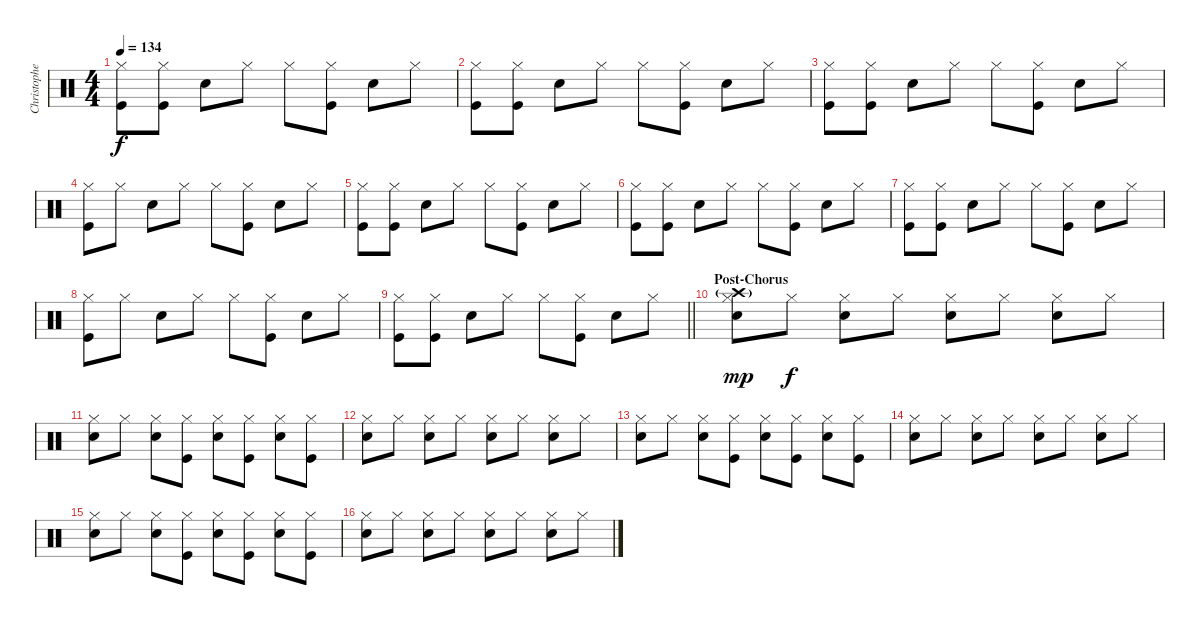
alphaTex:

\track ("Christopher - Drums" "Christophe") {instrument percussion}
\staff {score}
\articulation defaults
\ts (4 4)
\tempo 134
\clef neutral
\ks c
("Hi-Hat (closed)" "Kick (hit)").8{dy f} ("Hi-Hat (closed)" "Kick (hit)").8 "Snare (hit) 2".8 "Hi-Hat (closed)".8 "Hi-Hat (closed)".8 ("Hi-Hat (closed)" "Kick (hit)").8 "Snare (hit) 2".8 "Hi-Hat (closed)".8 |
("Hi-Hat (closed)" "Kick (hit)").8 ("Hi-Hat (closed)" "Kick (hit)").8 "Snare (hit) 2".8 "Hi-Hat (closed)".8 "Hi-Hat (closed)".8 ("Hi-Hat (closed)" "Kick (hit)").8 "Snare (hit) 2".8 "Hi-Hat (closed)".8 |
("Hi-Hat (closed)" "Kick (hit)").8 ("Hi-Hat (closed)" "Kick (hit)").8 "Snare (hit) 2".8 "Hi-Hat (closed)".8 "Hi-Hat (closed)".8 ("Hi-Hat (closed)" "Kick (hit)").8 "Snare (hit) 2".8 "Hi-Hat (closed)".8 |
("Hi-Hat (closed)" "Kick (hit)").8 "Hi-Hat (closed)".8 "Snare (hit) 2".8 "Hi-Hat (closed)".8 "Hi-Hat (closed)".8 ("Hi-Hat (closed)" "Kick (hit)").8 "Snare (hit) 2".8 "Hi-Hat (closed)".8 |
("Hi-Hat (closed)" "Kick (hit)").8 ("Hi-Hat (closed)" "Kick (hit)").8 "Snare (hit) 2".8 "Hi-Hat (closed)".8 "Hi-Hat (closed)".8 ("Hi-Hat (closed)" "Kick (hit)").8 "Snare (hit) 2".8 "Hi-Hat (closed)".8 |
("Hi-Hat (closed)" "Kick (hit)").8 ("Hi-Hat (closed)" "Kick (hit)").8 "Snare (hit) 2".8 "Hi-Hat (closed)".8 "Hi-Hat (closed)".8 ("Hi-Hat (closed)" "Kick (hit)").8 "Snare (hit) 2".8 "Hi-Hat (closed)".8 |
("Hi-Hat (closed)" "Kick (hit)").8 ("Hi-Hat (closed)" "Kick (hit)").8 "Snare (hit) 2".8 "Hi-Hat (closed)".8 "Hi-Hat (closed)".8 ("Hi-Hat (closed)" "Kick (hit)").8 "Snare (hit) 2".8 "Hi-Hat (closed)".8 |
("Hi-Hat (closed)" "Kick (hit)").8 "Hi-Hat (closed)".8 "Snare (hit) 2".8 "Hi-Hat (closed)".8 "Hi-Hat (closed)".8 ("Hi-Hat (closed)" "Kick (hit)").8 "Snare (hit) 2".8 "Hi-Hat (closed)".8 |
\barLineRight lightlight
("Hi-Hat (closed)" "Kick (hit)").8 ("Hi-Hat (closed)" "Kick (hit)").8 "Snare (hit) 2".8 "Hi-Hat (closed)".8 "Hi-Hat (closed)".8 ("Hi-Hat (closed)" "Kick (hit)").8 "Snare (hit) 2".8 "Hi-Hat (closed)".8 |
\section ("" "Post-Chorus")
("Crash high (hit)"{g} "Hi-Hat (closed)" "Snare (hit) 2").8{dy mp} "Hi-Hat (closed)".8{dy f} ("Hi-Hat (closed)" "Snare (hit) 2").8 "Hi-Hat (closed)".8 ("Hi-Hat (closed)" "Snare (hit) 2").8 "Hi-Hat (closed)".8 ("Hi-Hat (closed)" "Snare (hit) 2").8 "Hi-Hat (closed)".8 |
("Hi-Hat (closed)" "Snare (hit) 2").8 "Hi-Hat (closed)".8 ("Hi-Hat (closed)" "Snare (hit) 2").8 ("Hi-Hat (closed)" "Kick (hit)").8 ("Hi-Hat (closed)" "Snare (hit) 2").8 ("Hi-Hat (closed)" "Kick (hit)").8 ("Hi-Hat (closed)" "Snare (hit) 2").8 ("Hi-Hat (closed)" "Kick (hit)").8 |
("Hi-Hat (closed)" "Snare (hit) 2").8 "Hi-Hat (closed)".8 ("Hi-Hat (closed)" "Snare (hit) 2").8 "Hi-Hat (closed)".8 ("Hi-Hat (closed)" "Snare (hit) 2").8 "Hi-Hat (closed)".8 ("Hi-Hat (closed)" "Snare (hit) 2").8 "Hi-Hat (closed)".8 |
("Hi-Hat (closed)" "Snare (hit) 2").8 "Hi-Hat (closed)".8 ("Hi-Hat (closed)" "Snare (hit) 2").8 ("Hi-Hat (closed)" "Kick (hit)").8 ("Hi-Hat (closed)" "Snare (hit) 2").8 ("Hi-Hat (closed)" "Kick (hit)").8 ("Hi-Hat (closed)" "Snare (hit) 2").8 ("Hi-Hat (closed)" "Kick (hit)").8 |
("Hi-Hat (closed)" "Snare (hit) 2").8 "Hi-Hat (closed)".8 ("Hi-Hat (closed)" "Snare (hit) 2").8 "Hi-Hat (closed)".8 ("Hi-Hat (closed)" "Snare (hit) 2").8 "Hi-Hat (closed)".8 ("Hi-Hat (closed)" "Snare (hit) 2").8 "Hi-Hat (closed)".8 |
("Hi-Hat (closed)" "Snare (hit) 2").8 "Hi-Hat (closed)".8 ("Hi-Hat (closed)" "Snare (hit) 2").8 ("Hi-Hat (closed)" "Kick (hit)").8 ("Hi-Hat (closed)" "Snare (hit) 2").8 ("Hi-Hat (closed)" "Kick (hit)").8 ("Hi-Hat (closed)" "Snare (hit) 2").8 ("Hi-Hat (closed)" "Kick (hit)").8 |
("Hi-Hat (closed)" "Snare (hit) 2").8 "Hi-Hat (closed)".8 ("Hi-Hat (closed)" "Snare (hit) 2").8 "Hi-Hat (closed)".8 ("Hi-Hat (closed)" "Snare (hit) 2").8 "Hi-Hat (closed)".8 ("Hi-Hat (closed)" "Snare (hit) 2").8 "Hi-Hat (closed)".8
